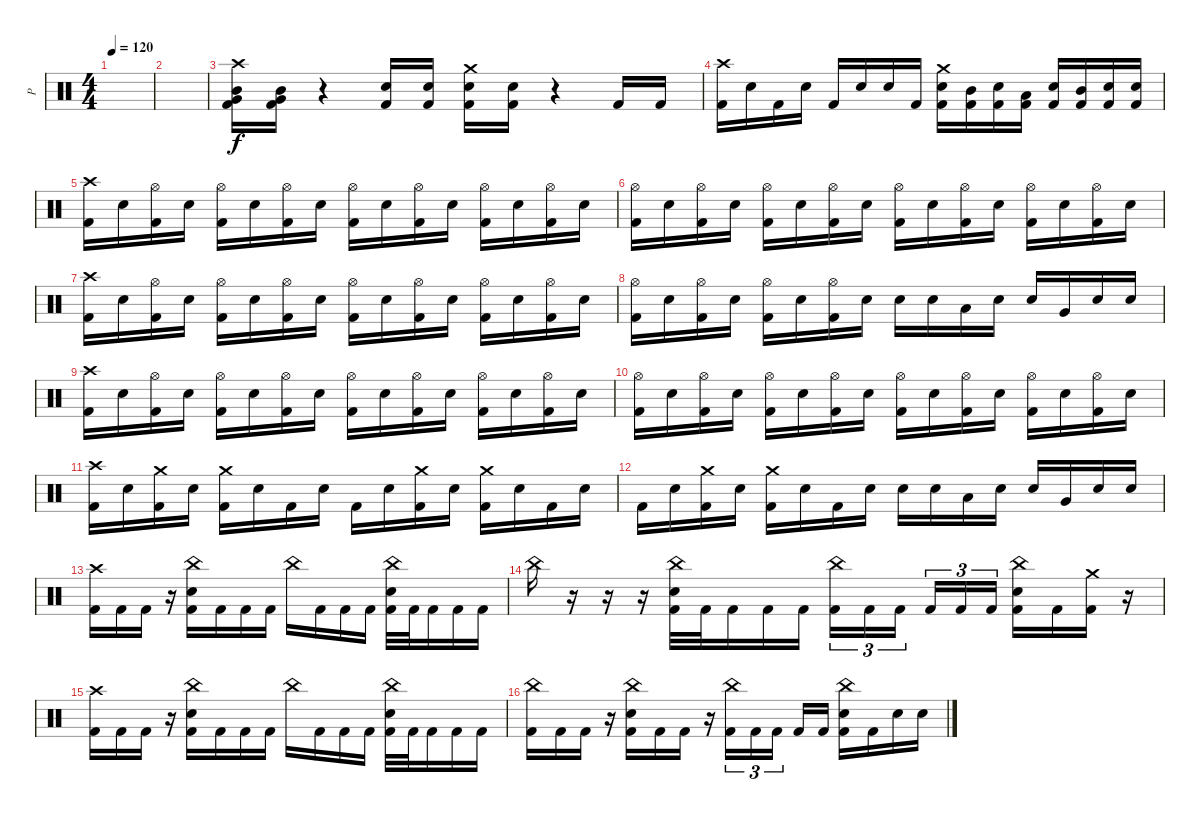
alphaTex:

\track ("P" "P") {instrument percussion}
\staff {score}
\articulation defaults
\ts (4 4)
\tempo 120
\clef neutral
\ks c
|
|
("Crash high (hit)" "Mid Tom (hit)" "Very Low Tom (hit)" "Kick (hit) 2").16 ("Mid Tom (hit)" "Very Low Tom (hit)" "Kick (hit) 2").16 r.4 ("Electric Snare (hit)" "Kick (hit) 2").16 ("Electric Snare (hit)" "Kick (hit) 2").16 ("Crash medium (hit)" "Electric Snare (hit)" "Kick (hit) 2").16 ("Electric Snare (hit)" "Kick (hit) 2").16 r.4 "Kick (hit) 2".16 "Kick (hit) 2".16 |
("Crash high (hit)" "Kick (hit) 2").16 "Electric Snare (hit)".16 "Kick (hit) 2".16 "Electric Snare (hit)".16 "Kick (hit) 2".16 "Electric Snare (hit)".16 "Electric Snare (hit)".16 "Kick (hit) 2".16 ("Crash medium (hit)" "Electric Snare (hit)" "Kick (hit) 2").16 ("Mid Tom (hit)" "Kick (hit) 2").16 ("Electric Snare (hit)" "Kick (hit) 2").16 ("Low Tom (hit)" "Kick (hit) 2").16 ("Electric Snare (hit)" "Kick (hit) 2").16 ("Mid Tom (hit)" "Kick (hit) 2").16 ("Electric Snare (hit)" "Kick (hit) 2").16 ("Electric Snare (hit)" "Kick (hit) 2").16 |
("Crash high (hit)" "Kick (hit) 2").16 "Electric Snare (hit)".16 ("Hi-Hat (open)" "Kick (hit) 2").16 "Electric Snare (hit)".16 ("Hi-Hat (open)" "Kick (hit) 2").16 "Electric Snare (hit)".16 ("Hi-Hat (open)" "Kick (hit) 2").16 "Electric Snare (hit)".16 ("Hi-Hat (open)" "Kick (hit) 2").16 "Electric Snare (hit)".16 ("Hi-Hat (open)" "Kick (hit) 2").16 "Electric Snare (hit)".16 ("Hi-Hat (open)" "Kick (hit) 2").16 "Electric Snare (hit)".16 ("Hi-Hat (open)" "Kick (hit) 2").16 "Electric Snare (hit)".16 |
("Hi-Hat (open)" "Kick (hit) 2").16 "Electric Snare (hit)".16 ("Hi-Hat (open)" "Kick (hit) 2").16 "Electric Snare (hit)".16 ("Hi-Hat (open)" "Kick (hit) 2").16 "Electric Snare (hit)".16 ("Hi-Hat (open)" "Kick (hit) 2").16 "Electric Snare (hit)".16 ("Hi-Hat (open)" "Kick (hit) 2").16 "Electric Snare (hit)".16 ("Hi-Hat (open)" "Kick (hit) 2").16 "Electric Snare (hit)".16 ("Hi-Hat (open)" "Kick (hit) 2").16 "Electric Snare (hit)".16 ("Hi-Hat (open)" "Kick (hit) 2").16 "Electric Snare (hit)".16 |
("Crash high (hit)" "Kick (hit) 2").16 "Electric Snare (hit)".16 ("Hi-Hat (open)" "Kick (hit) 2").16 "Electric Snare (hit)".16 ("Hi-Hat (open)" "Kick (hit) 2").16 "Electric Snare (hit)".16 ("Hi-Hat (open)" "Kick (hit) 2").16 "Electric Snare (hit)".16 ("Hi-Hat (open)" "Kick (hit) 2").16 "Electric Snare (hit)".16 ("Hi-Hat (open)" "Kick (hit) 2").16 "Electric Snare (hit)".16 ("Hi-Hat (open)" "Kick (hit) 2").16 "Electric Snare (hit)".16 ("Hi-Hat (open)" "Kick (hit) 2").16 "Electric Snare (hit)".16 |
("Hi-Hat (open)" "Kick (hit) 2").16 "Electric Snare (hit)".16 ("Hi-Hat (open)" "Kick (hit) 2").16 "Electric Snare (hit)".16 ("Hi-Hat (open)" "Kick (hit) 2").16 "Electric Snare (hit)".16 ("Hi-Hat (open)" "Kick (hit) 2").16 "Electric Snare (hit)".16 "Electric Snare (hit)".16 "Electric Snare (hit)".16 "Low Tom (hit)".16 "Electric Snare (hit)".16 "Electric Snare (hit)".16 "Very Low Tom (hit)".16 "Electric Snare (hit)".16 "Electric Snare (hit)".16 |
("Crash high (hit)" "Kick (hit) 2").16 "Electric Snare (hit)".16 ("Hi-Hat (open)" "Kick (hit) 2").16 "Electric Snare (hit)".16 ("Hi-Hat (open)" "Kick (hit) 2").16 "Electric Snare (hit)".16 ("Hi-Hat (open)" "Kick (hit) 2").16 "Electric Snare (hit)".16 ("Hi-Hat (open)" "Kick (hit) 2").16 "Electric Snare (hit)".16 ("Hi-Hat (open)" "Kick (hit) 2").16 "Electric Snare (hit)".16 ("Hi-Hat (open)" "Kick (hit) 2").16 "Electric Snare (hit)".16 ("Hi-Hat (open)" "Kick (hit) 2").16 "Electric Snare (hit)".16 |
("Hi-Hat (open)" "Kick (hit) 2").16 "Electric Snare (hit)".16 ("Hi-Hat (open)" "Kick (hit) 2").16 "Electric Snare (hit)".16 ("Hi-Hat (open)" "Kick (hit) 2").16 "Electric Snare (hit)".16 ("Hi-Hat (open)" "Kick (hit) 2").16 "Electric Snare (hit)".16 ("Hi-Hat (open)" "Kick (hit) 2").16 "Electric Snare (hit)".16 ("Hi-Hat (open)" "Kick (hit) 2").16 "Electric Snare (hit)".16 ("Hi-Hat (open)" "Kick (hit) 2").16 "Electric Snare (hit)".16 ("Hi-Hat (open)" "Kick (hit) 2").16 "Electric Snare (hit)".16 |
("Crash high (hit)" "Kick (hit) 2").16 "Electric Snare (hit)".16 ("Crash medium (hit)" "Kick (hit) 2").16 "Electric Snare (hit)".16 ("Crash medium (hit)" "Kick (hit) 2").16 "Electric Snare (hit)".16 "Kick (hit) 2".16 "Electric Snare (hit)".16 "Kick (hit) 2".16 "Electric Snare (hit)".16 ("Crash medium (hit)" "Kick (hit) 2").16 "Electric Snare (hit)".16 ("Crash medium (hit)" "Kick (hit) 2").16 "Electric Snare (hit)".16 "Kick (hit) 2".16 "Electric Snare (hit)".16 |
"Kick (hit) 2".16 "Electric Snare (hit)".16 ("Crash medium (hit)" "Kick (hit) 2").16 "Electric Snare (hit)".16 ("Crash medium (hit)" "Kick (hit) 2").16 "Electric Snare (hit)".16 "Kick (hit) 2".16 "Electric Snare (hit)".16 "Electric Snare (hit)".16 "Electric Snare (hit)".16 "Low Tom (hit)".16 "Electric Snare (hit)".16 "Electric Snare (hit)".16 "Very Low Tom (hit)".16 "Electric Snare (hit)".16 "Electric Snare (hit)".16 |
("Crash high (hit)" "Kick (hit) 2").16 "Kick (hit) 2".16 "Kick (hit) 2".16 r.16 ("China (hit)" "Electric Snare (hit)" "Kick (hit) 2").16 "Kick (hit) 2".16 "Kick (hit) 2".16 "Kick (hit) 2".16 "China (hit)".16 "Kick (hit) 2".16 "Kick (hit) 2".16 "Kick (hit) 2".16 ("China (hit)" "Electric Snare (hit)" "Kick (hit) 2").32 "Kick (hit) 2".32 "Kick (hit) 2".16 "Kick (hit) 2".16 "Kick (hit) 2".16 |
"China (hit)".16 r.16 r.16 r.16 ("China (hit)" "Electric Snare (hit)" "Kick (hit) 2").32 "Kick (hit) 2".32 "Kick (hit) 2".16 "Kick (hit) 2".16 "Kick (hit) 2".16 ("China (hit)" "Kick (hit) 2").16{tu (3 2)} "Kick (hit) 2".16{tu (3 2)} "Kick (hit) 2".16{tu (3 2) beam splitsecondary} "Kick (hit) 2".16{tu (3 2)} "Kick (hit) 2".16{tu (3 2)} "Kick (hit) 2".16{tu (3 2)} ("China (hit)" "Electric Snare (hit)" "Kick (hit) 2").16 "Kick (hit) 2".16 ("Crash medium (hit)" "Kick (hit) 2").16 r.16 |
("Crash high (hit)" "Kick (hit) 2").16 "Kick (hit) 2".16 "Kick (hit) 2".16 r.16 ("China (hit)" "Electric Snare (hit)" "Kick (hit) 2").16 "Kick (hit) 2".16 "Kick (hit) 2".16 "Kick (hit) 2".16 "China (hit)".16 "Kick (hit) 2".16 "Kick (hit) 2".16 "Kick (hit) 2".16 ("China (hit)" "Electric Snare (hit)" "Kick (hit) 2").32 "Kick (hit) 2".32 "Kick (hit) 2".16 "Kick (hit) 2".16 "Kick (hit) 2".16 |
("China (hit)" "Kick (hit) 2").16 "Kick (hit) 2".16 "Kick (hit) 2".16 r.16 ("China (hit)" "Electric Snare (hit)" "Kick (hit) 2").16 "Kick (hit) 2".16 "Kick (hit) 2".16 r.16 ("China (hit)" "Kick (hit) 2").16{tu (3 2)} "Kick (hit) 2".16{tu (3 2)} "Kick (hit) 2".16{tu (3 2) beam splitsecondary} "Kick (hit) 2".16 "Kick (hit) 2".16 ("China (hit)" "Electric Snare (hit)" "Kick (hit) 2").16 "Kick (hit) 2".16 "Electric Snare (hit)".16 "Electric Snare (hit)".16
